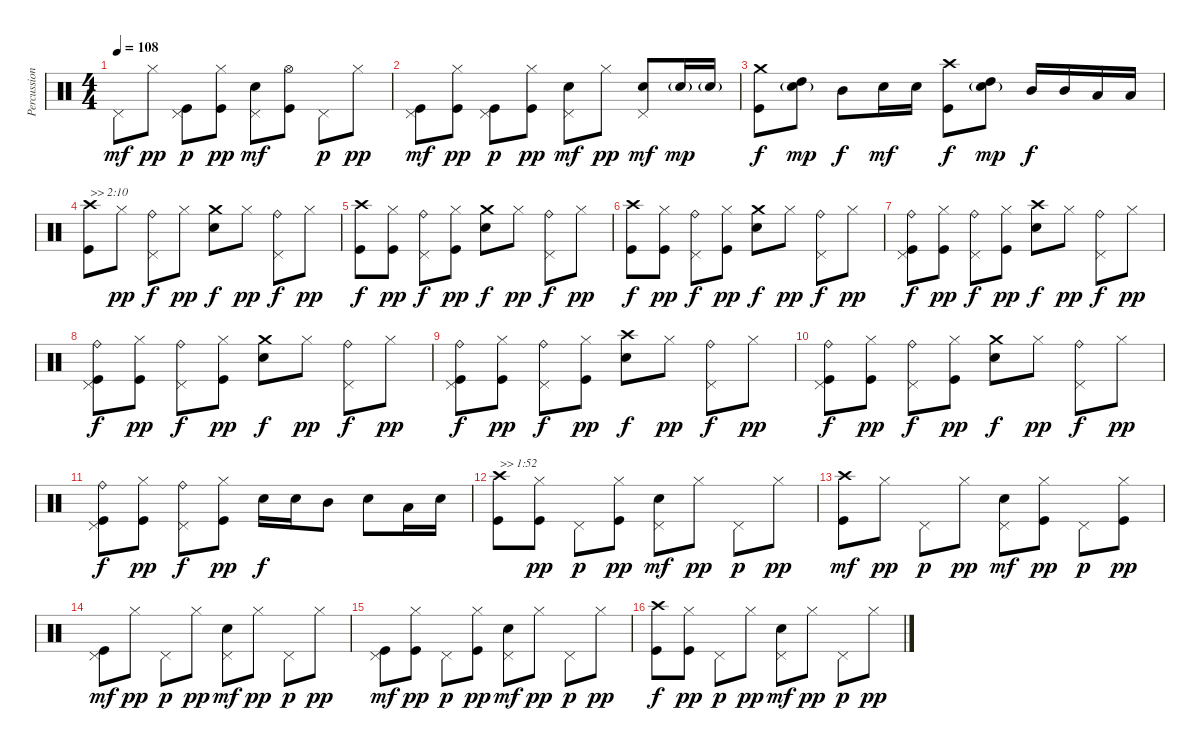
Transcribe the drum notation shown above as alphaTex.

\track ("Percussion" "Percussion") {instrument percussion}
\staff {score}
\articulation defaults
\ts (4 4)
\tempo 108
\clef neutral
\ks c "Pedal Hi-Hat (hit)".8{dy mf} "Hi-Hat (closed)".8{dy pp}
("Kick (hit)" "Pedal Hi-Hat (hit)").8{dy p} ("Kick (hit)" "Hi-Hat (closed)").8{dy pp} ("Electric Snare (hit)" "Pedal Hi-Hat (hit)").8{dy mf} ("Kick (hit)" "Hi-Hat (open)").8 "Pedal Hi-Hat (hit)".8{dy p} "Hi-Hat (closed)".8{dy pp} |
("Kick (hit)" "Pedal Hi-Hat (hit)").8{dy mf} ("Kick (hit)" "Hi-Hat (closed)").8{dy pp} ("Kick (hit)" "Pedal Hi-Hat (hit)").8{dy p} ("Kick (hit)" "Hi-Hat (closed)").8{dy pp} ("Electric Snare (hit)" "Pedal Hi-Hat (hit)").8{dy mf} "Hi-Hat (closed)".8{dy pp} ("Electric Snare (hit)" "Pedal Hi-Hat (hit)").8{dy mf} "Electric Snare (hit)"{g}.16{dy mp} "Electric Snare (hit)"{g}.16 |
("Kick (hit)" "Crash medium (hit)").8{dy f} ("Electric Snare (hit)"{g} "High Tom (hit)").8{dy mp} "Mid Tom (hit)".8{dy f} "Electric Snare (hit)".16{dy mf} "Electric Snare (hit)".16 ("Kick (hit)" "Crash high (hit)").8{dy f} ("Electric Snare (hit)"{g} "High Tom (hit)").8{dy mp} "Mid Tom (hit)".16{dy f} "Mid Tom (hit)".16 "Low Tom (hit)".16 "Low Tom (hit)".16 |
("Kick (hit)" "Crash high (hit)").8{txt ">> 2:10"} "Hi-Hat (closed)".8{dy pp} ("Pedal Hi-Hat (hit)" "Ride (bell)").8{dy f} "Hi-Hat (closed)".8{dy pp} ("Electric Snare (hit)" "Crash medium (hit)").8{dy f} "Hi-Hat (closed)".8{dy pp} ("Pedal Hi-Hat (hit)" "Ride (bell)").8{dy f} "Hi-Hat (closed)".8{dy pp} |
("Kick (hit)" "Crash high (hit)").8{dy f} ("Kick (hit)" "Hi-Hat (closed)").8{dy pp} ("Pedal Hi-Hat (hit)" "Ride (bell)").8{dy f} ("Kick (hit)" "Hi-Hat (closed)").8{dy pp} ("Electric Snare (hit)" "Crash medium (hit)").8{dy f} "Hi-Hat (closed)".8{dy pp} ("Pedal Hi-Hat (hit)" "Ride (bell)").8{dy f} "Hi-Hat (closed)".8{dy pp} |
("Kick (hit)" "Crash high (hit)").8{dy f} ("Kick (hit)" "Hi-Hat (closed)").8{dy pp} ("Pedal Hi-Hat (hit)" "Ride (bell)").8{dy f} ("Kick (hit)" "Hi-Hat (closed)").8{dy pp} ("Electric Snare (hit)" "Crash medium (hit)").8{dy f} "Hi-Hat (closed)".8{dy pp} ("Pedal Hi-Hat (hit)" "Ride (bell)").8{dy f} "Hi-Hat (closed)".8{dy pp} |
("Kick (hit)" "Pedal Hi-Hat (hit)" "Ride (bell)").8{dy f} ("Kick (hit)" "Hi-Hat (closed)").8{dy pp} ("Pedal Hi-Hat (hit)" "Ride (bell)").8{dy f} ("Kick (hit)" "Hi-Hat (closed)").8{dy pp} ("Electric Snare (hit)" "Crash high (hit)").8{dy f} "Hi-Hat (closed)".8{dy pp} ("Pedal Hi-Hat (hit)" "Ride (bell)").8{dy f} "Hi-Hat (closed)".8{dy pp} |
("Kick (hit)" "Pedal Hi-Hat (hit)" "Ride (bell)").8{dy f} ("Kick (hit)" "Hi-Hat (closed)").8{dy pp} ("Pedal Hi-Hat (hit)" "Ride (bell)").8{dy f} ("Kick (hit)" "Hi-Hat (closed)").8{dy pp} ("Electric Snare (hit)" "Crash medium (hit)").8{dy f} "Hi-Hat (closed)".8{dy pp} ("Pedal Hi-Hat (hit)" "Ride (bell)").8{dy f} "Hi-Hat (closed)".8{dy pp} |
("Kick (hit)" "Pedal Hi-Hat (hit)" "Ride (bell)").8{dy f} ("Kick (hit)" "Hi-Hat (closed)").8{dy pp} ("Pedal Hi-Hat (hit)" "Ride (bell)").8{dy f} ("Kick (hit)" "Hi-Hat (closed)").8{dy pp} ("Electric Snare (hit)" "Crash high (hit)").8{dy f} "Hi-Hat (closed)".8{dy pp} ("Pedal Hi-Hat (hit)" "Ride (bell)").8{dy f} "Hi-Hat (closed)".8{dy pp} |
("Kick (hit)" "Pedal Hi-Hat (hit)" "Ride (bell)").8{dy f} ("Kick (hit)" "Hi-Hat (closed)").8{dy pp} ("Pedal Hi-Hat (hit)" "Ride (bell)").8{dy f} ("Kick (hit)" "Hi-Hat (closed)").8{dy pp} ("Electric Snare (hit)" "Crash medium (hit)").8{dy f} "Hi-Hat (closed)".8{dy pp} ("Pedal Hi-Hat (hit)" "Ride (bell)").8{dy f} "Hi-Hat (closed)".8{dy pp} |
("Kick (hit)" "Pedal Hi-Hat (hit)" "Ride (bell)").8{dy f} ("Kick (hit)" "Hi-Hat (closed)").8{dy pp} ("Pedal Hi-Hat (hit)" "Ride (bell)").8{dy f} ("Kick (hit)" "Hi-Hat (closed)").8{dy pp} "Electric Snare (hit)".16{dy f} "Electric Snare (hit)".16 "Mid Tom (hit)".8 "Electric Snare (hit)".8 "Low Tom (hit)".16 "Electric Snare (hit)".16 |
("Kick (hit)" "Crash high (hit)").8{txt ">> 1:52"} ("Kick (hit)" "Hi-Hat (closed)").8{dy pp} "Pedal Hi-Hat (hit)".8{dy p} ("Kick (hit)" "Hi-Hat (closed)").8{dy pp} ("Electric Snare (hit)" "Pedal Hi-Hat (hit)").8{dy mf} "Hi-Hat (closed)".8{dy pp} "Pedal Hi-Hat (hit)".8{dy p} "Hi-Hat (closed)".8{dy pp} |
("Kick (hit)" "Crash high (hit)").8{dy mf} "Hi-Hat (closed)".8{dy pp} "Pedal Hi-Hat (hit)".8{dy p} "Hi-Hat (closed)".8{dy pp} ("Electric Snare (hit)" "Pedal Hi-Hat (hit)").8{dy mf} ("Kick (hit)" "Hi-Hat (closed)").8{dy pp} "Pedal Hi-Hat (hit)".8{dy p} ("Kick (hit)" "Hi-Hat (closed)").8{dy pp} |
("Kick (hit)" "Pedal Hi-Hat (hit)").8{dy mf} "Hi-Hat (closed)".8{dy pp} "Pedal Hi-Hat (hit)".8{dy p} "Hi-Hat (closed)".8{dy pp} ("Electric Snare (hit)" "Pedal Hi-Hat (hit)").8{dy mf} "Hi-Hat (closed)".8{dy pp} "Pedal Hi-Hat (hit)".8{dy p} "Hi-Hat (closed)".8{dy pp} |
("Kick (hit)" "Pedal Hi-Hat (hit)").8{dy mf} ("Kick (hit)" "Hi-Hat (closed)").8{dy pp} "Pedal Hi-Hat (hit)".8{dy p} ("Kick (hit)" "Hi-Hat (closed)").8{dy pp} ("Electric Snare (hit)" "Pedal Hi-Hat (hit)").8{dy mf} "Hi-Hat (closed)".8{dy pp} "Pedal Hi-Hat (hit)".8{dy p} "Hi-Hat (closed)".8{dy pp} |
("Kick (hit)" "Crash high (hit)").8{dy f} ("Kick (hit)" "Hi-Hat (closed)").8{dy pp} "Pedal Hi-Hat (hit)".8{dy p} "Hi-Hat (closed)".8{dy pp} ("Electric Snare (hit)" "Pedal Hi-Hat (hit)").8{dy mf} "Hi-Hat (closed)".8{dy pp} "Pedal Hi-Hat (hit)".8{dy p} "Hi-Hat (closed)".8{dy pp}
